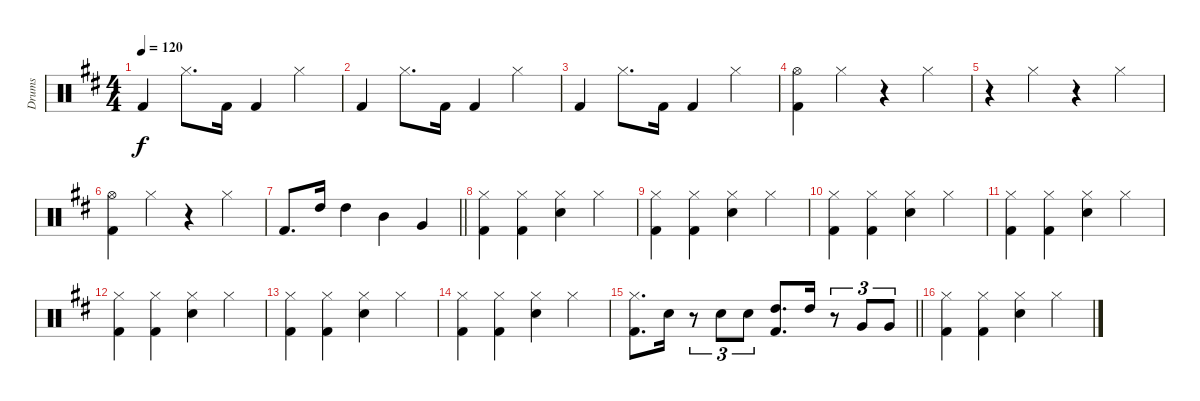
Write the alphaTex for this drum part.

\track ("Drums" "Drums") {instrument percussion}
\staff {score}
\articulation defaults
\ts (4 4)
\tempo 120
\clef neutral
\ks d "Kick (hit) 2".4{dy f} "Hi-Hat (closed)".8{d} "Kick (hit) 2".16 "Kick (hit) 2".4 "Hi-Hat (closed)".4
|
"Kick (hit) 2".4 "Hi-Hat (closed)".8{d} "Kick (hit) 2".16 "Kick (hit) 2".4 "Hi-Hat (closed)".4 |
"Kick (hit) 2".4 "Hi-Hat (closed)".8{d} "Kick (hit) 2".16 "Kick (hit) 2".4 "Hi-Hat (closed)".4 |
("Hi-Hat (open)" "Kick (hit) 2").4 "Hi-Hat (closed)".4 r.4 "Hi-Hat (closed)".4 |
r.4 "Hi-Hat (closed)".4 r.4 "Hi-Hat (closed)".4 |
("Hi-Hat (open)" "Kick (hit) 2").4 "Hi-Hat (closed)".4 r.4 "Hi-Hat (closed)".4 |
\barLineRight lightlight "Kick (hit) 2".8{d} "High Tom (hit)".16 "High Tom (hit)".4 "Mid Tom (hit)".4 "Very Low Tom (hit)".4
|
("Hi-Hat (closed)" "Kick (hit) 2").4 ("Hi-Hat (closed)" "Kick (hit) 2").4 ("Hi-Hat (closed)" "Snare (hit) 2").4 "Hi-Hat (closed)".4 |
("Hi-Hat (closed)" "Kick (hit) 2").4 ("Hi-Hat (closed)" "Kick (hit) 2").4 ("Hi-Hat (closed)" "Snare (hit) 2").4 "Hi-Hat (closed)".4 |
("Hi-Hat (closed)" "Kick (hit) 2").4 ("Hi-Hat (closed)" "Kick (hit) 2").4 ("Hi-Hat (closed)" "Snare (hit) 2").4 "Hi-Hat (closed)".4 |
("Hi-Hat (closed)" "Kick (hit) 2").4 ("Hi-Hat (closed)" "Kick (hit) 2").4 ("Hi-Hat (closed)" "Snare (hit) 2").4 "Hi-Hat (closed)".4 |
("Hi-Hat (closed)" "Kick (hit) 2").4 ("Hi-Hat (closed)" "Kick (hit) 2").4 ("Hi-Hat (closed)" "Snare (hit) 2").4 "Hi-Hat (closed)".4 |
("Hi-Hat (closed)" "Kick (hit) 2").4 ("Hi-Hat (closed)" "Kick (hit) 2").4 ("Hi-Hat (closed)" "Snare (hit) 2").4 "Hi-Hat (closed)".4 |
("Hi-Hat (closed)" "Kick (hit) 2").4 ("Hi-Hat (closed)" "Kick (hit) 2").4 ("Hi-Hat (closed)" "Snare (hit) 2").4 "Hi-Hat (closed)".4 |
\barLineRight lightlight
("Hi-Hat (closed)" "Kick (hit) 2").8{d} "Snare (hit) 2".16 r.8{tu (3 2)} "Snare (hit) 2".8{tu (3 2)} "Snare (hit) 2".8{tu (3 2)} ("Kick (hit) 2" "High Tom (hit)").8{d} "High Tom (hit)".16 r.8{tu (3 2)} "Very Low Tom (hit)".8{tu (3 2)} "Very Low Tom (hit)".8{tu (3 2)} |
("Hi-Hat (closed)" "Kick (hit) 2").4 ("Hi-Hat (closed)" "Kick (hit) 2").4 ("Hi-Hat (closed)" "Snare (hit) 2").4 "Hi-Hat (closed)".4
